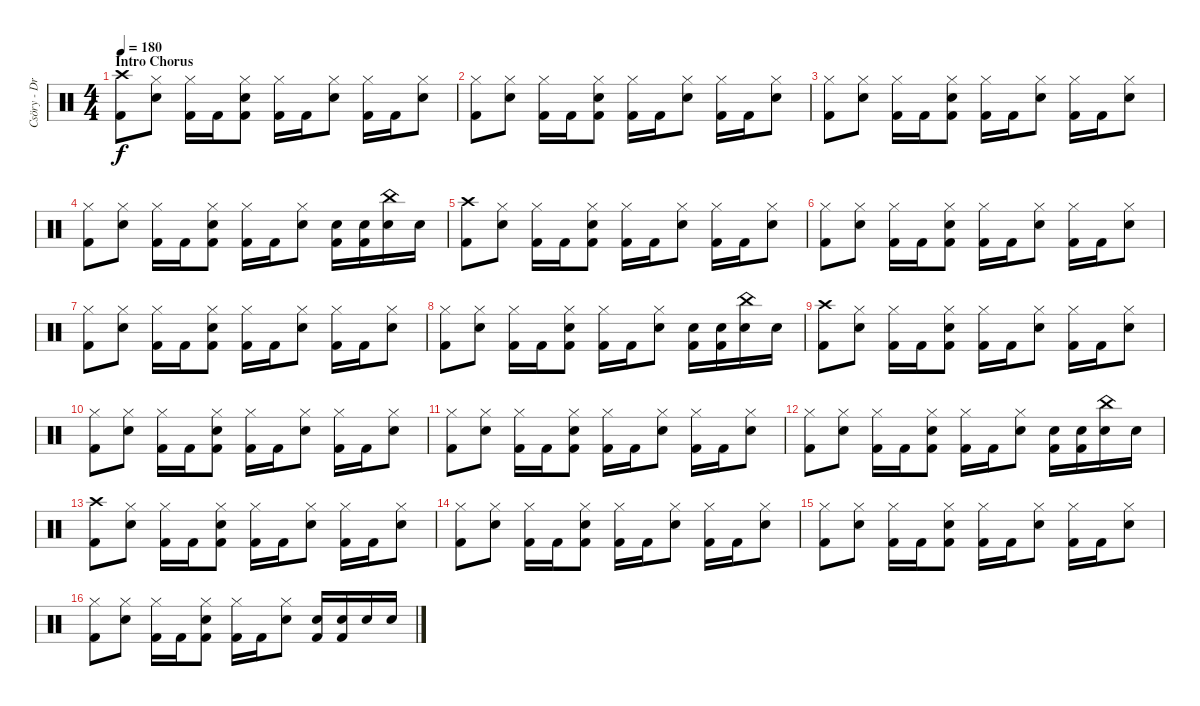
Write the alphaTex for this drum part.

\track ("Csöry - DrumZ" "Csöry - Dr") {instrument percussion}
\staff {score}
\articulation defaults
\ts (4 4)
\section ("" "Intro Chorus")
\tempo 180
\clef neutral
\ks c
("Crash high (hit)" "Kick (hit) 2").8{dy f} ("Hi-Hat (closed)" "Snare (hit) 2").8 ("Hi-Hat (closed)" "Kick (hit) 2").16 "Kick (hit) 2".16 ("Hi-Hat (closed)" "Snare (hit) 2" "Kick (hit) 2").8 ("Hi-Hat (closed)" "Kick (hit) 2").16 "Kick (hit) 2".16 ("Hi-Hat (closed)" "Snare (hit) 2").8 ("Hi-Hat (closed)" "Kick (hit) 2").16 "Kick (hit) 2".16 ("Hi-Hat (closed)" "Snare (hit) 2").8 |
("Hi-Hat (closed)" "Kick (hit) 2").8 ("Hi-Hat (closed)" "Snare (hit) 2").8 ("Hi-Hat (closed)" "Kick (hit) 2").16 "Kick (hit) 2".16 ("Hi-Hat (closed)" "Snare (hit) 2" "Kick (hit) 2").8 ("Hi-Hat (closed)" "Kick (hit) 2").16 "Kick (hit) 2".16 ("Hi-Hat (closed)" "Snare (hit) 2").8 ("Hi-Hat (closed)" "Kick (hit) 2").16 "Kick (hit) 2".16 ("Hi-Hat (closed)" "Snare (hit) 2").8 |
("Hi-Hat (closed)" "Kick (hit) 2").8 ("Hi-Hat (closed)" "Snare (hit) 2").8 ("Hi-Hat (closed)" "Kick (hit) 2").16 "Kick (hit) 2".16 ("Hi-Hat (closed)" "Snare (hit) 2" "Kick (hit) 2").8 ("Hi-Hat (closed)" "Kick (hit) 2").16 "Kick (hit) 2".16 ("Hi-Hat (closed)" "Snare (hit) 2").8 ("Hi-Hat (closed)" "Kick (hit) 2").16 "Kick (hit) 2".16 ("Hi-Hat (closed)" "Snare (hit) 2").8 |
("Hi-Hat (closed)" "Kick (hit) 2").8 ("Hi-Hat (closed)" "Snare (hit) 2").8 ("Hi-Hat (closed)" "Kick (hit) 2").16 "Kick (hit) 2".16 ("Hi-Hat (closed)" "Snare (hit) 2" "Kick (hit) 2").8 ("Hi-Hat (closed)" "Kick (hit) 2").16 "Kick (hit) 2".16 ("Hi-Hat (closed)" "Snare (hit) 2").8 ("Snare (hit) 2" "Kick (hit) 2").16 ("Snare (hit) 2" "Kick (hit) 2").16 ("China (hit)" "Snare (hit) 2").16 "Snare (hit) 2".16 |
("Crash high (hit)" "Kick (hit) 2").8 ("Hi-Hat (closed)" "Snare (hit) 2").8 ("Hi-Hat (closed)" "Kick (hit) 2").16 "Kick (hit) 2".16 ("Hi-Hat (closed)" "Snare (hit) 2" "Kick (hit) 2").8 ("Hi-Hat (closed)" "Kick (hit) 2").16 "Kick (hit) 2".16 ("Hi-Hat (closed)" "Snare (hit) 2").8 ("Hi-Hat (closed)" "Kick (hit) 2").16 "Kick (hit) 2".16 ("Hi-Hat (closed)" "Snare (hit) 2").8 |
("Hi-Hat (closed)" "Kick (hit) 2").8 ("Hi-Hat (closed)" "Snare (hit) 2").8 ("Hi-Hat (closed)" "Kick (hit) 2").16 "Kick (hit) 2".16 ("Hi-Hat (closed)" "Snare (hit) 2" "Kick (hit) 2").8 ("Hi-Hat (closed)" "Kick (hit) 2").16 "Kick (hit) 2".16 ("Hi-Hat (closed)" "Snare (hit) 2").8 ("Hi-Hat (closed)" "Kick (hit) 2").16 "Kick (hit) 2".16 ("Hi-Hat (closed)" "Snare (hit) 2").8 |
("Hi-Hat (closed)" "Kick (hit) 2").8 ("Hi-Hat (closed)" "Snare (hit) 2").8 ("Hi-Hat (closed)" "Kick (hit) 2").16 "Kick (hit) 2".16 ("Hi-Hat (closed)" "Snare (hit) 2" "Kick (hit) 2").8 ("Hi-Hat (closed)" "Kick (hit) 2").16 "Kick (hit) 2".16 ("Hi-Hat (closed)" "Snare (hit) 2").8 ("Hi-Hat (closed)" "Kick (hit) 2").16 "Kick (hit) 2".16 ("Hi-Hat (closed)" "Snare (hit) 2").8 |
("Hi-Hat (closed)" "Kick (hit) 2").8 ("Hi-Hat (closed)" "Snare (hit) 2").8 ("Hi-Hat (closed)" "Kick (hit) 2").16 "Kick (hit) 2".16 ("Hi-Hat (closed)" "Snare (hit) 2" "Kick (hit) 2").8 ("Hi-Hat (closed)" "Kick (hit) 2").16 "Kick (hit) 2".16 ("Hi-Hat (closed)" "Snare (hit) 2").8 ("Snare (hit) 2" "Kick (hit) 2").16 ("Snare (hit) 2" "Kick (hit) 2").16 ("China (hit)" "Snare (hit) 2").16 "Snare (hit) 2".16 |
("Crash high (hit)" "Kick (hit) 2").8 ("Hi-Hat (closed)" "Snare (hit) 2").8 ("Hi-Hat (closed)" "Kick (hit) 2").16 "Kick (hit) 2".16 ("Hi-Hat (closed)" "Snare (hit) 2" "Kick (hit) 2").8 ("Hi-Hat (closed)" "Kick (hit) 2").16 "Kick (hit) 2".16 ("Hi-Hat (closed)" "Snare (hit) 2").8 ("Hi-Hat (closed)" "Kick (hit) 2").16 "Kick (hit) 2".16 ("Hi-Hat (closed)" "Snare (hit) 2").8 |
("Hi-Hat (closed)" "Kick (hit) 2").8 ("Hi-Hat (closed)" "Snare (hit) 2").8 ("Hi-Hat (closed)" "Kick (hit) 2").16 "Kick (hit) 2".16 ("Hi-Hat (closed)" "Snare (hit) 2" "Kick (hit) 2").8 ("Hi-Hat (closed)" "Kick (hit) 2").16 "Kick (hit) 2".16 ("Hi-Hat (closed)" "Snare (hit) 2").8 ("Hi-Hat (closed)" "Kick (hit) 2").16 "Kick (hit) 2".16 ("Hi-Hat (closed)" "Snare (hit) 2").8 |
("Hi-Hat (closed)" "Kick (hit) 2").8 ("Hi-Hat (closed)" "Snare (hit) 2").8 ("Hi-Hat (closed)" "Kick (hit) 2").16 "Kick (hit) 2".16 ("Hi-Hat (closed)" "Snare (hit) 2" "Kick (hit) 2").8 ("Hi-Hat (closed)" "Kick (hit) 2").16 "Kick (hit) 2".16 ("Hi-Hat (closed)" "Snare (hit) 2").8 ("Hi-Hat (closed)" "Kick (hit) 2").16 "Kick (hit) 2".16 ("Hi-Hat (closed)" "Snare (hit) 2").8 |
("Hi-Hat (closed)" "Kick (hit) 2").8 ("Hi-Hat (closed)" "Snare (hit) 2").8 ("Hi-Hat (closed)" "Kick (hit) 2").16 "Kick (hit) 2".16 ("Hi-Hat (closed)" "Snare (hit) 2" "Kick (hit) 2").8 ("Hi-Hat (closed)" "Kick (hit) 2").16 "Kick (hit) 2".16 ("Hi-Hat (closed)" "Snare (hit) 2").8 ("Snare (hit) 2" "Kick (hit) 2").16 ("Snare (hit) 2" "Kick (hit) 2").16 ("China (hit)" "Snare (hit) 2").16 "Snare (hit) 2".16 |
("Crash high (hit)" "Kick (hit) 2").8 ("Hi-Hat (closed)" "Snare (hit) 2").8 ("Hi-Hat (closed)" "Kick (hit) 2").16 "Kick (hit) 2".16 ("Hi-Hat (closed)" "Snare (hit) 2" "Kick (hit) 2").8 ("Hi-Hat (closed)" "Kick (hit) 2").16 "Kick (hit) 2".16 ("Hi-Hat (closed)" "Snare (hit) 2").8 ("Hi-Hat (closed)" "Kick (hit) 2").16 "Kick (hit) 2".16 ("Hi-Hat (closed)" "Snare (hit) 2").8 |
("Hi-Hat (closed)" "Kick (hit) 2").8 ("Hi-Hat (closed)" "Snare (hit) 2").8 ("Hi-Hat (closed)" "Kick (hit) 2").16 "Kick (hit) 2".16 ("Hi-Hat (closed)" "Snare (hit) 2" "Kick (hit) 2").8 ("Hi-Hat (closed)" "Kick (hit) 2").16 "Kick (hit) 2".16 ("Hi-Hat (closed)" "Snare (hit) 2").8 ("Hi-Hat (closed)" "Kick (hit) 2").16 "Kick (hit) 2".16 ("Hi-Hat (closed)" "Snare (hit) 2").8 |
("Hi-Hat (closed)" "Kick (hit) 2").8 ("Hi-Hat (closed)" "Snare (hit) 2").8 ("Hi-Hat (closed)" "Kick (hit) 2").16 "Kick (hit) 2".16 ("Hi-Hat (closed)" "Snare (hit) 2" "Kick (hit) 2").8 ("Hi-Hat (closed)" "Kick (hit) 2").16 "Kick (hit) 2".16 ("Hi-Hat (closed)" "Snare (hit) 2").8 ("Hi-Hat (closed)" "Kick (hit) 2").16 "Kick (hit) 2".16 ("Hi-Hat (closed)" "Snare (hit) 2").8 |
("Hi-Hat (closed)" "Kick (hit) 2").8 ("Hi-Hat (closed)" "Snare (hit) 2").8 ("Hi-Hat (closed)" "Kick (hit) 2").16 "Kick (hit) 2".16 ("Hi-Hat (closed)" "Snare (hit) 2" "Kick (hit) 2").8 ("Hi-Hat (closed)" "Kick (hit) 2").16 "Kick (hit) 2".16 ("Hi-Hat (closed)" "Snare (hit) 2").8 ("Snare (hit) 2" "Kick (hit) 2").16 ("Snare (hit) 2" "Kick (hit) 2").16 "Snare (hit) 2".16 "Snare (hit) 2".16
